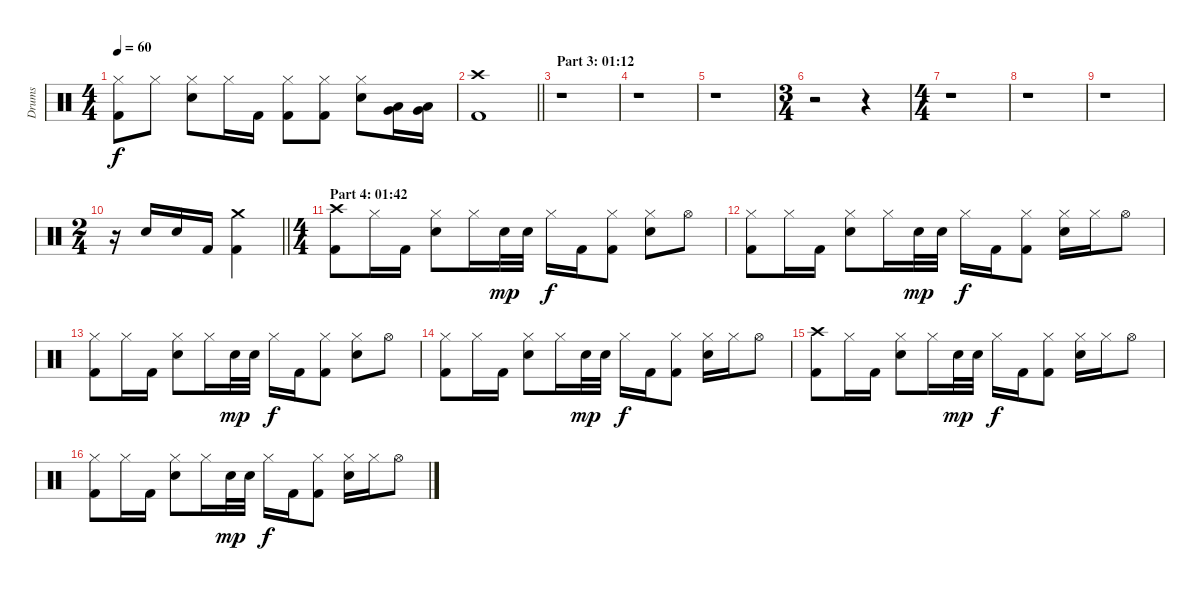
\track ("Drums" "Drums") {instrument percussion}
\staff {score}
\articulation defaults
\ts (4 4)
\tempo 60
\clef neutral
\ks c
("Hi-Hat (closed)" "Kick (hit) 2").8{dy f} "Hi-Hat (closed)".8 ("Hi-Hat (closed)" "Electric Snare (hit)").8 "Hi-Hat (closed)".16 "Kick (hit) 2".16 ("Hi-Hat (closed)" "Kick (hit) 2").8 ("Hi-Hat (closed)" "Kick (hit) 2").8 ("Hi-Hat (closed)" "Electric Snare (hit)").8 ("Low Tom (hit)" "Very Low Tom (hit)").16{bd 30} ("Low Tom (hit)" "Very Low Tom (hit)").16{bd 30} |
\barLineRight lightlight
("Crash high (hit)" "Kick (hit) 2").1 |
\section ("" "Part 3: 01:12")
r.1 |
r.1 |
r.1 |
\ts (3 4)
r.2 r.4 |
\ts (4 4)
r.1 |
r.1 |
r.1 |
\ts (2 4)
\barLineRight lightlight
r.16 "Electric Snare (hit)".16 "Electric Snare (hit)".16 "Kick (hit) 2".16 ("Crash medium (hit)" "Kick (hit) 2").4 |
\ts (4 4)
\section ("" "Part 4: 01:42")
("Crash high (hit)" "Kick (hit) 2").8 "Hi-Hat (closed)".16 "Kick (hit) 2".16 ("Hi-Hat (closed)" "Electric Snare (hit)").8 "Hi-Hat (closed)".16 "Electric Snare (hit)".32{dy mp} "Electric Snare (hit)".32 "Hi-Hat (closed)".16{dy f} "Kick (hit) 2".16 ("Hi-Hat (closed)" "Kick (hit) 2").8 ("Hi-Hat (closed)" "Electric Snare (hit)").8 "Hi-Hat (open)".8 |
("Hi-Hat (closed)" "Kick (hit) 2").8 "Hi-Hat (closed)".16 "Kick (hit) 2".16 ("Hi-Hat (closed)" "Electric Snare (hit)").8 "Hi-Hat (closed)".16 "Electric Snare (hit)".32{dy mp} "Electric Snare (hit)".32 "Hi-Hat (closed)".16{dy f} "Kick (hit) 2".16 ("Hi-Hat (closed)" "Kick (hit) 2").8 ("Hi-Hat (closed)" "Electric Snare (hit)").16 "Hi-Hat (closed)".16 "Hi-Hat (open)".8 |
("Hi-Hat (closed)" "Kick (hit) 2").8 "Hi-Hat (closed)".16 "Kick (hit) 2".16 ("Hi-Hat (closed)" "Electric Snare (hit)").8 "Hi-Hat (closed)".16 "Electric Snare (hit)".32{dy mp} "Electric Snare (hit)".32 "Hi-Hat (closed)".16{dy f} "Kick (hit) 2".16 ("Hi-Hat (closed)" "Kick (hit) 2").8 ("Hi-Hat (closed)" "Electric Snare (hit)").8 "Hi-Hat (open)".8 |
("Hi-Hat (closed)" "Kick (hit) 2").8 "Hi-Hat (closed)".16 "Kick (hit) 2".16 ("Hi-Hat (closed)" "Electric Snare (hit)").8 "Hi-Hat (closed)".16 "Electric Snare (hit)".32{dy mp} "Electric Snare (hit)".32 "Hi-Hat (closed)".16{dy f} "Kick (hit) 2".16 ("Hi-Hat (closed)" "Kick (hit) 2").8 ("Hi-Hat (closed)" "Electric Snare (hit)").16 "Hi-Hat (closed)".16 "Hi-Hat (open)".8 |
("Crash high (hit)" "Kick (hit) 2").8 "Hi-Hat (closed)".16 "Kick (hit) 2".16 ("Hi-Hat (closed)" "Electric Snare (hit)").8 "Hi-Hat (closed)".16 "Electric Snare (hit)".32{dy mp} "Electric Snare (hit)".32 "Hi-Hat (closed)".16{dy f} "Kick (hit) 2".16 ("Hi-Hat (closed)" "Kick (hit) 2").8 ("Hi-Hat (closed)" "Electric Snare (hit)").16 "Hi-Hat (closed)".16 "Hi-Hat (open)".8 |
("Hi-Hat (closed)" "Kick (hit) 2").8 "Hi-Hat (closed)".16 "Kick (hit) 2".16 ("Hi-Hat (closed)" "Electric Snare (hit)").8 "Hi-Hat (closed)".16 "Electric Snare (hit)".32{dy mp} "Electric Snare (hit)".32 "Hi-Hat (closed)".16{dy f} "Kick (hit) 2".16 ("Hi-Hat (closed)" "Kick (hit) 2").8 ("Hi-Hat (closed)" "Electric Snare (hit)").16 "Hi-Hat (closed)".16 "Hi-Hat (open)".8
